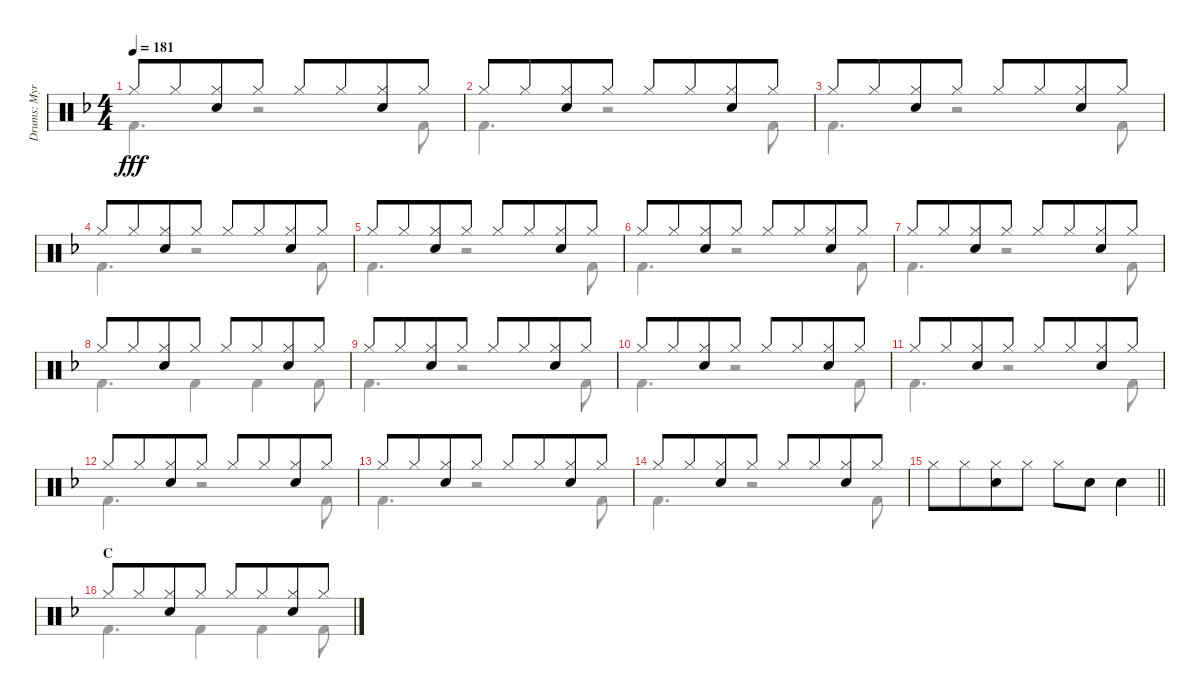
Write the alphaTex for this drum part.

\track ("Drums: Myron" "Drums: Myr") {instrument percussion}
\staff {score}
\articulation defaults
\voice
\ts (4 4)
\tempo 181
\clef neutral
\ks f "Hi-Hat (closed)".8{dy fff} "Hi-Hat (closed)".8{beam merge}
("Hi-Hat (closed)" "Electric Snare (hit)").8 "Hi-Hat (closed)".8 "Hi-Hat (closed)".8 "Hi-Hat (closed)".8{beam merge} ("Hi-Hat (closed)" "Electric Snare (hit)").8 "Hi-Hat (closed)".8 |
"Hi-Hat (closed)".8 "Hi-Hat (closed)".8{beam merge} ("Hi-Hat (closed)" "Electric Snare (hit)").8 "Hi-Hat (closed)".8 "Hi-Hat (closed)".8 "Hi-Hat (closed)".8{beam merge} ("Hi-Hat (closed)" "Electric Snare (hit)").8 "Hi-Hat (closed)".8 |
"Hi-Hat (closed)".8 "Hi-Hat (closed)".8{beam merge} ("Hi-Hat (closed)" "Electric Snare (hit)").8 "Hi-Hat (closed)".8 "Hi-Hat (closed)".8 "Hi-Hat (closed)".8{beam merge} ("Hi-Hat (closed)" "Electric Snare (hit)").8 "Hi-Hat (closed)".8 |
"Hi-Hat (closed)".8 "Hi-Hat (closed)".8{beam merge} ("Hi-Hat (closed)" "Electric Snare (hit)").8 "Hi-Hat (closed)".8 "Hi-Hat (closed)".8 "Hi-Hat (closed)".8{beam merge} ("Hi-Hat (closed)" "Electric Snare (hit)").8 "Hi-Hat (closed)".8 |
"Hi-Hat (closed)".8 "Hi-Hat (closed)".8{beam merge} ("Hi-Hat (closed)" "Electric Snare (hit)").8 "Hi-Hat (closed)".8 "Hi-Hat (closed)".8 "Hi-Hat (closed)".8{beam merge} ("Hi-Hat (closed)" "Electric Snare (hit)").8 "Hi-Hat (closed)".8 |
"Hi-Hat (closed)".8 "Hi-Hat (closed)".8{beam merge} ("Hi-Hat (closed)" "Electric Snare (hit)").8 "Hi-Hat (closed)".8 "Hi-Hat (closed)".8 "Hi-Hat (closed)".8{beam merge} ("Hi-Hat (closed)" "Electric Snare (hit)").8 "Hi-Hat (closed)".8 |
"Hi-Hat (closed)".8 "Hi-Hat (closed)".8{beam merge} ("Hi-Hat (closed)" "Electric Snare (hit)").8 "Hi-Hat (closed)".8 "Hi-Hat (closed)".8 "Hi-Hat (closed)".8{beam merge} ("Hi-Hat (closed)" "Electric Snare (hit)").8 "Hi-Hat (closed)".8 |
"Hi-Hat (closed)".8 "Hi-Hat (closed)".8{beam merge} ("Hi-Hat (closed)" "Electric Snare (hit)").8 "Hi-Hat (closed)".8 "Hi-Hat (closed)".8 "Hi-Hat (closed)".8{beam merge} ("Hi-Hat (closed)" "Electric Snare (hit)").8 "Hi-Hat (closed)".8 |
"Hi-Hat (closed)".8 "Hi-Hat (closed)".8{beam merge} ("Hi-Hat (closed)" "Electric Snare (hit)").8 "Hi-Hat (closed)".8 "Hi-Hat (closed)".8 "Hi-Hat (closed)".8{beam merge} ("Hi-Hat (closed)" "Electric Snare (hit)").8 "Hi-Hat (closed)".8 |
"Hi-Hat (closed)".8 "Hi-Hat (closed)".8{beam merge} ("Hi-Hat (closed)" "Electric Snare (hit)").8 "Hi-Hat (closed)".8 "Hi-Hat (closed)".8 "Hi-Hat (closed)".8{beam merge} ("Hi-Hat (closed)" "Electric Snare (hit)").8 "Hi-Hat (closed)".8 |
"Hi-Hat (closed)".8 "Hi-Hat (closed)".8{beam merge} ("Hi-Hat (closed)" "Electric Snare (hit)").8 "Hi-Hat (closed)".8 "Hi-Hat (closed)".8 "Hi-Hat (closed)".8{beam merge} ("Hi-Hat (closed)" "Electric Snare (hit)").8 "Hi-Hat (closed)".8 |
"Hi-Hat (closed)".8 "Hi-Hat (closed)".8{beam merge} ("Hi-Hat (closed)" "Electric Snare (hit)").8 "Hi-Hat (closed)".8 "Hi-Hat (closed)".8 "Hi-Hat (closed)".8{beam merge} ("Hi-Hat (closed)" "Electric Snare (hit)").8 "Hi-Hat (closed)".8 |
"Hi-Hat (closed)".8 "Hi-Hat (closed)".8{beam merge} ("Hi-Hat (closed)" "Electric Snare (hit)").8 "Hi-Hat (closed)".8 "Hi-Hat (closed)".8 "Hi-Hat (closed)".8{beam merge} ("Hi-Hat (closed)" "Electric Snare (hit)").8 "Hi-Hat (closed)".8 |
"Hi-Hat (closed)".8 "Hi-Hat (closed)".8{beam merge} ("Hi-Hat (closed)" "Electric Snare (hit)").8 "Hi-Hat (closed)".8 "Hi-Hat (closed)".8 "Hi-Hat (closed)".8{beam merge} ("Hi-Hat (closed)" "Electric Snare (hit)").8 "Hi-Hat (closed)".8 |
\barLineRight lightlight "Hi-Hat (closed)".8 "Hi-Hat (closed)".8{beam merge}
("Hi-Hat (closed)" "Electric Snare (hit)").8 "Hi-Hat (closed)".8 "Hi-Hat (closed)".8 "Electric Snare (hit)".8{beam merge} "Electric Snare (hit)".4 |
\section ("" "C")
"Hi-Hat (closed)".8 "Hi-Hat (closed)".8{beam merge} ("Hi-Hat (closed)" "Electric Snare (hit)").8 "Hi-Hat (closed)".8 "Hi-Hat (closed)".8 "Hi-Hat (closed)".8{beam merge} ("Hi-Hat (closed)" "Electric Snare (hit)").8 "Hi-Hat (closed)".8
\voice
\clef neutral
\ottava regular
\simile none
\ks f "Kick (hit) 2".4{d dy fff}
r.2 "Kick (hit) 2".8 |
"Kick (hit) 2".4{d} r.2 "Kick (hit) 2".8 |
"Kick (hit) 2".4{d} r.2 "Kick (hit) 2".8 |
"Kick (hit) 2".4{d} r.2 "Kick (hit) 2".8 |
"Kick (hit) 2".4{d} r.2 "Kick (hit) 2".8 |
"Kick (hit) 2".4{d} r.2 "Kick (hit) 2".8 |
"Kick (hit) 2".4{d} r.2 "Kick (hit) 2".8 |
"Kick (hit) 2".4{d} "Kick (hit) 2".4 "Kick (hit) 2".4 "Kick (hit) 2".8 |
"Kick (hit) 2".4{d} r.2 "Kick (hit) 2".8 |
"Kick (hit) 2".4{d} r.2 "Kick (hit) 2".8 |
"Kick (hit) 2".4{d} r.2 "Kick (hit) 2".8 |
"Kick (hit) 2".4{d} r.2 "Kick (hit) 2".8 |
"Kick (hit) 2".4{d} r.2 "Kick (hit) 2".8 |
"Kick (hit) 2".4{d} r.2 "Kick (hit) 2".8 |
\barLineRight lightlight
|
"Kick (hit) 2".4{d} "Kick (hit) 2".4 "Kick (hit) 2".4 "Kick (hit) 2".8
